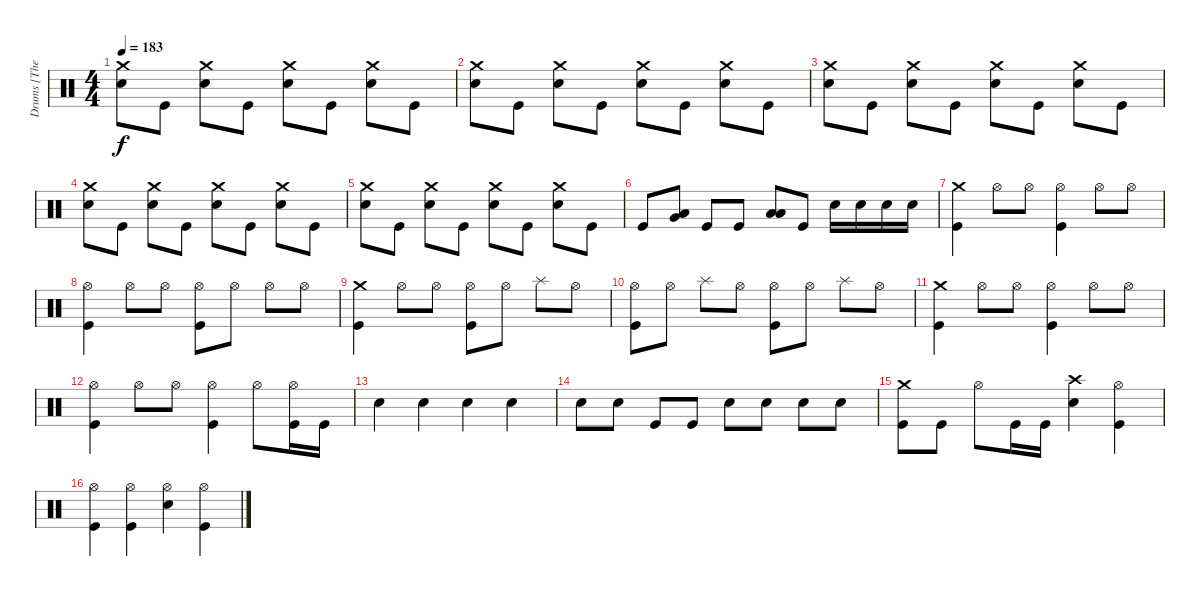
\track ("Drums [The Rev]" "Drums [The") {instrument percussion}
\staff {score}
\articulation defaults
\ts (4 4)
\tempo 183
\clef neutral
\ks c
("Crash medium (hit)" "Snare (hit) 2").8{dy f} "Kick (hit)".8 ("Crash medium (hit)" "Snare (hit) 2").8 "Kick (hit)".8 ("Crash medium (hit)" "Snare (hit) 2").8 "Kick (hit)".8 ("Crash medium (hit)" "Snare (hit) 2").8 "Kick (hit)".8 |
("Crash medium (hit)" "Snare (hit) 2").8 "Kick (hit)".8 ("Crash medium (hit)" "Snare (hit) 2").8 "Kick (hit)".8 ("Crash medium (hit)" "Snare (hit) 2").8 "Kick (hit)".8 ("Crash medium (hit)" "Snare (hit) 2").8 "Kick (hit)".8 |
("Crash medium (hit)" "Snare (hit) 2").8 "Kick (hit)".8 ("Crash medium (hit)" "Snare (hit) 2").8 "Kick (hit)".8 ("Crash medium (hit)" "Snare (hit) 2").8 "Kick (hit)".8 ("Crash medium (hit)" "Snare (hit) 2").8 "Kick (hit)".8 |
("Crash medium (hit)" "Snare (hit) 2").8 "Kick (hit)".8 ("Crash medium (hit)" "Snare (hit) 2").8 "Kick (hit)".8 ("Crash medium (hit)" "Snare (hit) 2").8 "Kick (hit)".8 ("Crash medium (hit)" "Snare (hit) 2").8 "Kick (hit)".8 |
("Crash medium (hit)" "Snare (hit) 2").8 "Kick (hit)".8 ("Crash medium (hit)" "Snare (hit) 2").8 "Kick (hit)".8 ("Crash medium (hit)" "Snare (hit) 2").8 "Kick (hit)".8 ("Crash medium (hit)" "Snare (hit) 2").8 "Kick (hit)".8 |
"Kick (hit)".8 ("Low Floor Tom (hit)" "Very Low Tom (hit)").8 "Kick (hit)".8 "Kick (hit)".8 ("Low Floor Tom (hit)" "Low Floor Tom (hit)").8 "Kick (hit)".8 "Snare (hit) 2".16 "Snare (hit) 2".16 "Snare (hit) 2".16 "Snare (hit) 2".16 |
("Crash medium (hit)" "Kick (hit)").4 "Hi-Hat (open)".8 "Hi-Hat (open)".8 ("Hi-Hat (open)" "Kick (hit)").4 "Hi-Hat (open)".8 "Hi-Hat (open)".8 |
("Hi-Hat (open)" "Kick (hit)").4 "Hi-Hat (open)".8 "Hi-Hat (open)".8 ("Hi-Hat (open)" "Kick (hit)").8 "Hi-Hat (open)".8 "Hi-Hat (open)".8 "Hi-Hat (open)".8 |
("Crash medium (hit)" "Kick (hit)").4 "Hi-Hat (open)".8 "Hi-Hat (open)".8 ("Hi-Hat (open)" "Kick (hit)").8 "Hi-Hat (open)".8 "Splash (hit)".8 "Hi-Hat (open)".8 |
("Hi-Hat (open)" "Kick (hit)").8 "Hi-Hat (open)".8 "Splash (hit)".8 "Hi-Hat (open)".8 ("Hi-Hat (open)" "Kick (hit)").8 "Hi-Hat (open)".8 "Splash (hit)".8 "Hi-Hat (open)".8 |
("Crash medium (hit)" "Kick (hit)").4 "Hi-Hat (open)".8 "Hi-Hat (open)".8 ("Hi-Hat (open)" "Kick (hit)").4 "Hi-Hat (open)".8 "Hi-Hat (open)".8 |
("Hi-Hat (open)" "Kick (hit)").4 "Hi-Hat (open)".8 "Hi-Hat (open)".8 ("Hi-Hat (open)" "Kick (hit)").4 "Hi-Hat (open)".8 ("Hi-Hat (open)" "Kick (hit)").16 "Kick (hit)".16 |
"Snare (hit) 2".4 "Snare (hit) 2".4 "Snare (hit) 2".4 "Snare (hit) 2".4 |
"Snare (hit) 2".8 "Snare (hit) 2".8 "Kick (hit)".8 "Kick (hit)".8 "Snare (hit) 2".8 "Snare (hit) 2".8 "Snare (hit) 2".8 "Snare (hit) 2".8 |
("Crash medium (hit)" "Kick (hit)").8 "Kick (hit)".8 "Hi-Hat (open)".8 "Kick (hit)".16 "Kick (hit)".16 ("Crash high (hit)" "Snare (hit) 2").4 ("Hi-Hat (open)" "Kick (hit)").4 |
("Hi-Hat (open)" "Kick (hit)").4 ("Hi-Hat (open)" "Kick (hit)").4 ("Hi-Hat (open)" "Snare (hit) 2").4 ("Hi-Hat (open)" "Kick (hit)").4
